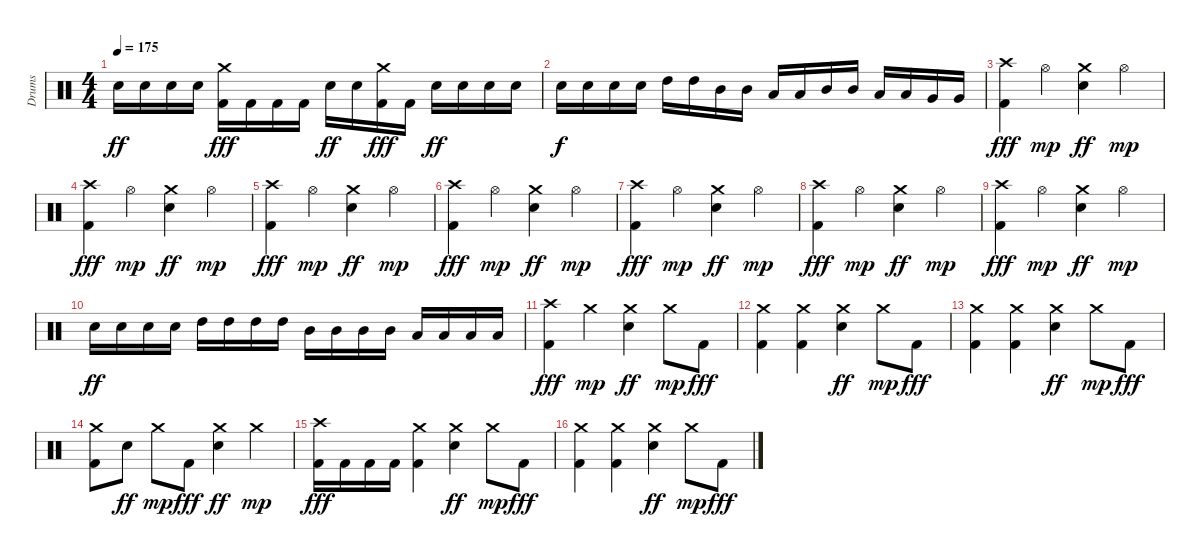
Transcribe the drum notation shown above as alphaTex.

\track ("Drums" "Drums") {instrument percussion}
\staff {score}
\articulation defaults
\ts (4 4)
\tempo 175
\clef neutral
\ks c "Snare (hit) 2".16{dy ff} "Snare (hit) 2".16 "Snare (hit) 2".16 "Snare (hit) 2".16
("Crash medium (hit)" "Kick (hit) 2").16{dy fff} "Kick (hit) 2".16 "Kick (hit) 2".16 "Kick (hit) 2".16 "Snare (hit) 2".16{dy ff} "Snare (hit) 2".16 ("Crash medium (hit)" "Kick (hit) 2").16{dy fff} "Kick (hit) 2".16 "Snare (hit) 2".16{dy ff} "Snare (hit) 2".16 "Snare (hit) 2".16 "Snare (hit) 2".16 |
"Snare (hit) 2".16{dy f} "Snare (hit) 2".16 "Snare (hit) 2".16 "Snare (hit) 2".16 "High Tom (hit)".16 "High Tom (hit)".16 "Mid Tom (hit)".16 "Mid Tom (hit)".16 "Low Tom (hit)".16 "Low Tom (hit)".16 "Mid Tom (hit)".16 "Mid Tom (hit)".16 "Low Tom (hit)".16 "Low Tom (hit)".16 "Very Low Tom (hit)".16 "Very Low Tom (hit)".16 |
("Crash high (hit)" "Kick (hit) 2").4{dy fff} "Hi-Hat (open)".4{dy mp} ("Crash medium (hit)" "Snare (hit) 2").4{dy ff} "Hi-Hat (open)".4{dy mp} |
("Crash high (hit)" "Kick (hit) 2").4{dy fff} "Hi-Hat (open)".4{dy mp} ("Crash medium (hit)" "Snare (hit) 2").4{dy ff} "Hi-Hat (open)".4{dy mp} |
("Crash high (hit)" "Kick (hit) 2").4{dy fff} "Hi-Hat (open)".4{dy mp} ("Crash medium (hit)" "Snare (hit) 2").4{dy ff} "Hi-Hat (open)".4{dy mp} |
("Crash high (hit)" "Kick (hit) 2").4{dy fff} "Hi-Hat (open)".4{dy mp} ("Crash medium (hit)" "Snare (hit) 2").4{dy ff} "Hi-Hat (open)".4{dy mp} |
("Crash high (hit)" "Kick (hit) 2").4{dy fff} "Hi-Hat (open)".4{dy mp} ("Crash medium (hit)" "Snare (hit) 2").4{dy ff} "Hi-Hat (open)".4{dy mp} |
("Crash high (hit)" "Kick (hit) 2").4{dy fff} "Hi-Hat (open)".4{dy mp} ("Crash medium (hit)" "Snare (hit) 2").4{dy ff} "Hi-Hat (open)".4{dy mp} |
("Crash high (hit)" "Kick (hit) 2").4{dy fff} "Hi-Hat (open)".4{dy mp} ("Crash medium (hit)" "Snare (hit) 2").4{dy ff} "Hi-Hat (open)".4{dy mp} |
"Snare (hit) 2".16{dy ff} "Snare (hit) 2".16 "Snare (hit) 2".16 "Snare (hit) 2".16 "High Tom (hit)".16 "High Tom (hit)".16 "High Tom (hit)".16 "High Tom (hit)".16 "Mid Tom (hit)".16 "Mid Tom (hit)".16 "Mid Tom (hit)".16 "Mid Tom (hit)".16 "Low Tom (hit)".16 "Low Tom (hit)".16 "Low Tom (hit)".16 "Low Tom (hit)".16 |
("Crash high (hit)" "Kick (hit) 2").4{dy fff} "Crash medium (hit)".4{dy mp} ("Crash medium (hit)" "Snare (hit) 2").4{dy ff} "Crash medium (hit)".8{dy mp} "Kick (hit) 2".8{dy fff} |
("Crash medium (hit)" "Kick (hit) 2").4 ("Crash medium (hit)" "Kick (hit) 2").4 ("Crash medium (hit)" "Snare (hit) 2").4{dy ff} "Crash medium (hit)".8{dy mp} "Kick (hit) 2".8{dy fff} |
("Crash medium (hit)" "Kick (hit) 2").4 ("Crash medium (hit)" "Kick (hit) 2").4 ("Crash medium (hit)" "Snare (hit) 2").4{dy ff} "Crash medium (hit)".8{dy mp} "Kick (hit) 2".8{dy fff} |
("Crash medium (hit)" "Kick (hit) 2").8 "Snare (hit) 2".8{dy ff} "Crash medium (hit)".8{dy mp} "Kick (hit) 2".8{dy fff} ("Crash medium (hit)" "Snare (hit) 2").4{dy ff} "Crash medium (hit)".4{dy mp} |
("Crash high (hit)" "Kick (hit) 2").16{dy fff} "Kick (hit) 2".16 "Kick (hit) 2".16 "Kick (hit) 2".16 ("Crash medium (hit)" "Kick (hit) 2").4 ("Crash medium (hit)" "Snare (hit) 2").4{dy ff} "Crash medium (hit)".8{dy mp} "Kick (hit) 2".8{dy fff} |
("Crash medium (hit)" "Kick (hit) 2").4 ("Crash medium (hit)" "Kick (hit) 2").4 ("Crash medium (hit)" "Snare (hit) 2").4{dy ff} "Crash medium (hit)".8{dy mp} "Kick (hit) 2".8{dy fff}
